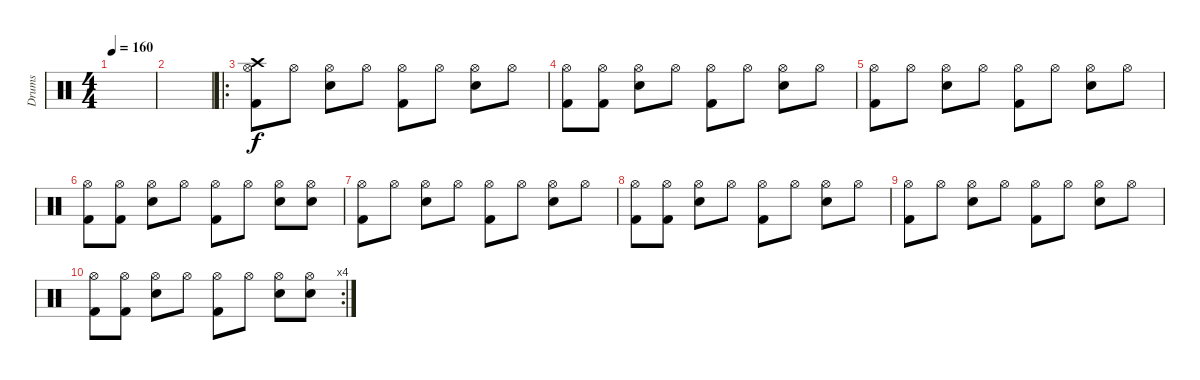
\track ("Drums" "Drums") {instrument percussion}
\staff {score}
\articulation defaults
\ts (4 4)
\tempo 160
\clef neutral
\ks c
|
|
\ro
("Kick (hit) 2" "Hi-Hat (open)" "Crash high (hit)").8 "Hi-Hat (open)".8 ("Snare (hit) 2" "Hi-Hat (open)").8 "Hi-Hat (open)".8 ("Kick (hit) 2" "Hi-Hat (open)").8 "Hi-Hat (open)".8 ("Snare (hit) 2" "Hi-Hat (open)").8 "Hi-Hat (open)".8 |
("Kick (hit) 2" "Hi-Hat (open)").8 ("Kick (hit) 2" "Hi-Hat (open)").8 ("Snare (hit) 2" "Hi-Hat (open)").8 "Hi-Hat (open)".8 ("Kick (hit) 2" "Hi-Hat (open)").8 "Hi-Hat (open)".8 ("Snare (hit) 2" "Hi-Hat (open)").8 "Hi-Hat (open)".8 |
("Kick (hit) 2" "Hi-Hat (open)").8 "Hi-Hat (open)".8 ("Snare (hit) 2" "Hi-Hat (open)").8 "Hi-Hat (open)".8 ("Kick (hit) 2" "Hi-Hat (open)").8 "Hi-Hat (open)".8 ("Snare (hit) 2" "Hi-Hat (open)").8 "Hi-Hat (open)".8 |
("Kick (hit) 2" "Hi-Hat (open)").8 ("Kick (hit) 2" "Hi-Hat (open)").8 ("Snare (hit) 2" "Hi-Hat (open)").8 "Hi-Hat (open)".8 ("Kick (hit) 2" "Hi-Hat (open)").8 "Hi-Hat (open)".8 ("Snare (hit) 2" "Hi-Hat (open)").8 ("Snare (hit) 2" "Hi-Hat (open)").8 |
("Kick (hit) 2" "Hi-Hat (open)").8 "Hi-Hat (open)".8 ("Snare (hit) 2" "Hi-Hat (open)").8 "Hi-Hat (open)".8 ("Kick (hit) 2" "Hi-Hat (open)").8 "Hi-Hat (open)".8 ("Snare (hit) 2" "Hi-Hat (open)").8 "Hi-Hat (open)".8 |
("Kick (hit) 2" "Hi-Hat (open)").8 ("Kick (hit) 2" "Hi-Hat (open)").8 ("Snare (hit) 2" "Hi-Hat (open)").8 "Hi-Hat (open)".8 ("Kick (hit) 2" "Hi-Hat (open)").8 "Hi-Hat (open)".8 ("Snare (hit) 2" "Hi-Hat (open)").8 "Hi-Hat (open)".8 |
("Kick (hit) 2" "Hi-Hat (open)").8 "Hi-Hat (open)".8 ("Snare (hit) 2" "Hi-Hat (open)").8 "Hi-Hat (open)".8 ("Kick (hit) 2" "Hi-Hat (open)").8 "Hi-Hat (open)".8 ("Snare (hit) 2" "Hi-Hat (open)").8 "Hi-Hat (open)".8 |
\rc 4
("Kick (hit) 2" "Hi-Hat (open)").8 ("Kick (hit) 2" "Hi-Hat (open)").8 ("Snare (hit) 2" "Hi-Hat (open)").8 "Hi-Hat (open)".8 ("Kick (hit) 2" "Hi-Hat (open)").8 "Hi-Hat (open)".8 ("Snare (hit) 2" "Hi-Hat (open)").8 ("Snare (hit) 2" "Hi-Hat (open)").8
